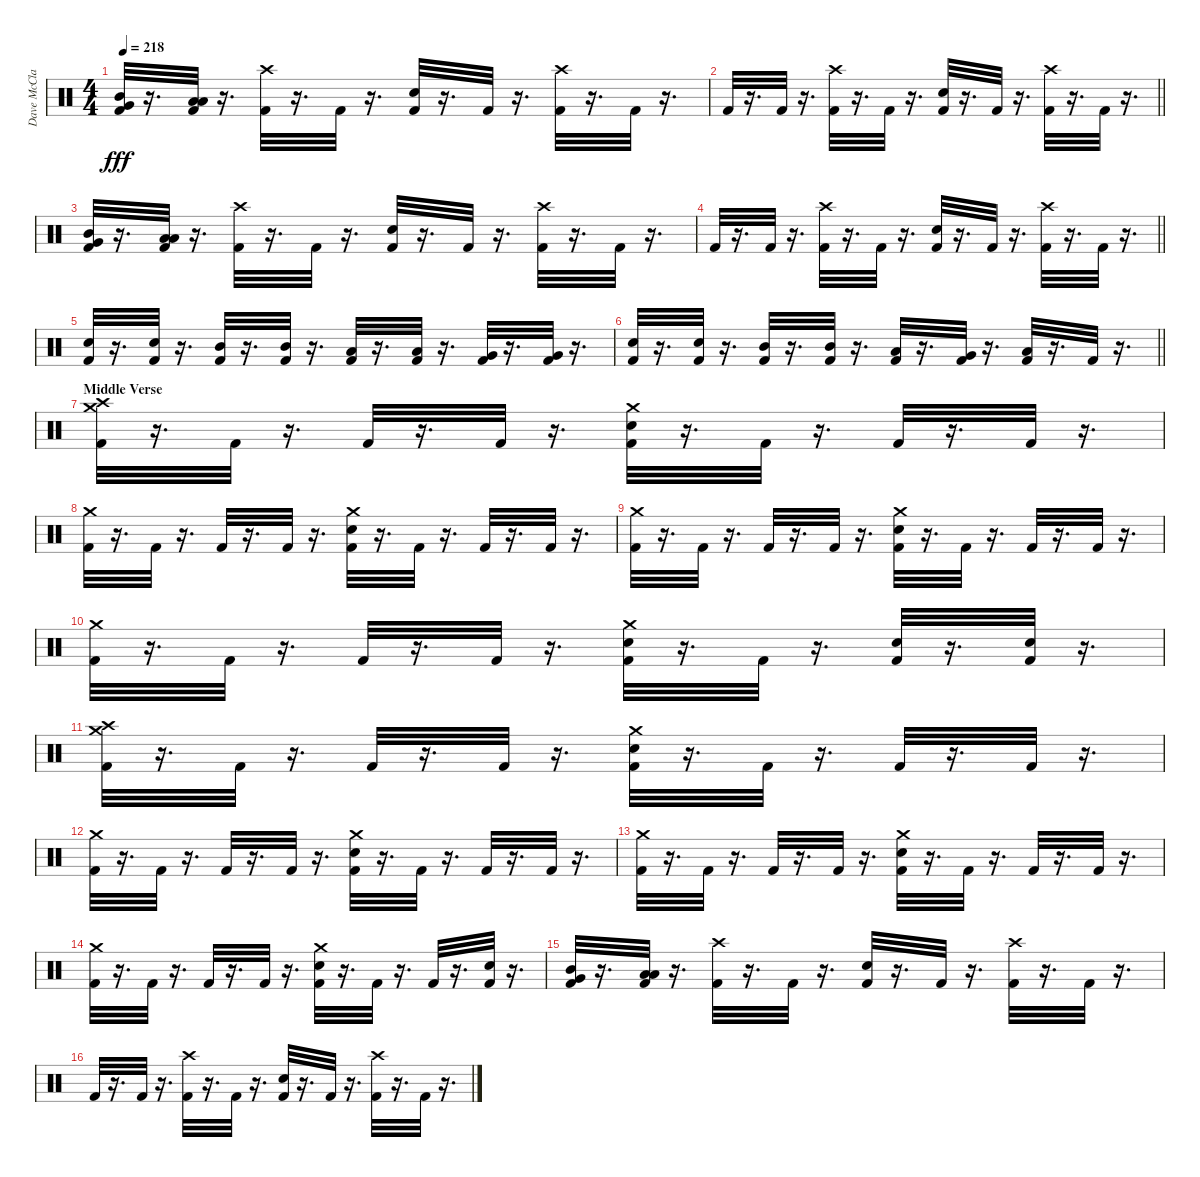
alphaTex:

\track ("Dave McClain" "Dave McCla") {instrument percussion}
\staff {score}
\articulation defaults
\ts (4 4)
\tempo 218
\clef neutral
\ks c
("Very Low Tom (hit)" "Mid Tom (hit)" "Kick (hit) 2").32{dy fff} r.16{d} ("Low Tom (hit)" "Low Floor Tom (hit)" "Kick (hit) 2").32 r.16{d} ("Kick (hit) 2" "Crash high (hit)").32 r.16{d} "Kick (hit) 2".32 r.16{d} ("Kick (hit) 2" "Snare (hit) 2").32 r.16{d} "Kick (hit) 2".32 r.16{d} ("Kick (hit) 2" "Crash high (hit)").32 r.16{d} "Kick (hit) 2".32 r.16{d} |
\barLineRight lightlight "Kick (hit) 2".32
r.16{d} "Kick (hit) 2".32 r.16{d} ("Kick (hit) 2" "Crash high (hit)").32 r.16{d} "Kick (hit) 2".32 r.16{d} ("Kick (hit) 2" "Snare (hit) 2").32 r.16{d} "Kick (hit) 2".32 r.16{d} ("Kick (hit) 2" "Crash high (hit)").32 r.16{d} "Kick (hit) 2".32 r.16{d} |
("Very Low Tom (hit)" "Mid Tom (hit)" "Kick (hit) 2").32 r.16{d} ("Kick (hit) 2" "Low Tom (hit)" "Low Floor Tom (hit)").32 r.16{d} ("Kick (hit) 2" "Crash high (hit)").32 r.16{d} "Kick (hit) 2".32 r.16{d} ("Kick (hit) 2" "Snare (hit) 2").32 r.16{d} "Kick (hit) 2".32 r.16{d} ("Kick (hit) 2" "Crash high (hit)").32 r.16{d} "Kick (hit) 2".32 r.16{d} |
\barLineRight lightlight "Kick (hit) 2".32
r.16{d} "Kick (hit) 2".32 r.16{d} ("Kick (hit) 2" "Crash high (hit)").32 r.16{d} "Kick (hit) 2".32 r.16{d} ("Kick (hit) 2" "Snare (hit) 2").32 r.16{d} "Kick (hit) 2".32 r.16{d} ("Kick (hit) 2" "Crash high (hit)").32 r.16{d} "Kick (hit) 2".32 r.16{d} |
("Snare (hit) 2" "Kick (hit) 2").32 r.16{d} ("Snare (hit) 2" "Kick (hit) 2").32 r.16{d} ("Mid Tom (hit)" "Kick (hit) 2").32 r.16{d} ("Mid Tom (hit)" "Kick (hit) 2").32 r.16{d} ("Low Tom (hit)" "Kick (hit) 2").32 r.16{d} ("Low Tom (hit)" "Kick (hit) 2").32 r.16{d} ("Very Low Tom (hit)" "Kick (hit) 2").32 r.16{d} ("Very Low Tom (hit)" "Kick (hit) 2").32 r.16{d} |
\barLineRight lightlight
("Snare (hit) 2" "Kick (hit) 2").32 r.16{d} ("Snare (hit) 2" "Kick (hit) 2").32 r.16{d} ("Mid Tom (hit)" "Kick (hit) 2").32 r.16{d} ("Mid Tom (hit)" "Kick (hit) 2").32 r.16{d} ("Low Tom (hit)" "Kick (hit) 2").32 r.16{d} ("Very Low Tom (hit)" "Kick (hit) 2").32 r.16{d} ("Low Floor Tom (hit)" "Kick (hit) 2").32 r.16{d} "Kick (hit) 2".32 r.16{d} |
\section ("" "Middle Verse")
("Crash medium (hit)" "Crash high (hit)" "Kick (hit) 2").32 r.16{d} "Kick (hit) 2".32 r.16{d} "Kick (hit) 2".32 r.16{d} "Kick (hit) 2".32 r.16{d} ("Crash medium (hit)" "Snare (hit) 2" "Kick (hit) 2").32 r.16{d} "Kick (hit) 2".32 r.16{d} "Kick (hit) 2".32 r.16{d} "Kick (hit) 2".32 r.16{d} |
("Crash medium (hit)" "Kick (hit) 2").32 r.16{d} "Kick (hit) 2".32 r.16{d} "Kick (hit) 2".32 r.16{d} "Kick (hit) 2".32 r.16{d} ("Crash medium (hit)" "Snare (hit) 2" "Kick (hit) 2").32 r.16{d} "Kick (hit) 2".32 r.16{d} "Kick (hit) 2".32 r.16{d} "Kick (hit) 2".32 r.16{d} |
("Crash medium (hit)" "Kick (hit) 2").32 r.16{d} "Kick (hit) 2".32 r.16{d} "Kick (hit) 2".32 r.16{d} "Kick (hit) 2".32 r.16{d} ("Crash medium (hit)" "Snare (hit) 2" "Kick (hit) 2").32 r.16{d} "Kick (hit) 2".32 r.16{d} "Kick (hit) 2".32 r.16{d} "Kick (hit) 2".32 r.16{d} |
("Crash medium (hit)" "Kick (hit) 2").32 r.16{d} "Kick (hit) 2".32 r.16{d} "Kick (hit) 2".32 r.16{d} "Kick (hit) 2".32 r.16{d} ("Crash medium (hit)" "Snare (hit) 2" "Kick (hit) 2").32 r.16{d} "Kick (hit) 2".32 r.16{d} ("Snare (hit) 2" "Kick (hit) 2").32 r.16{d} ("Snare (hit) 2" "Kick (hit) 2").32 r.16{d} |
("Crash medium (hit)" "Crash high (hit)" "Kick (hit) 2").32 r.16{d} "Kick (hit) 2".32 r.16{d} "Kick (hit) 2".32 r.16{d} "Kick (hit) 2".32 r.16{d} ("Crash medium (hit)" "Snare (hit) 2" "Kick (hit) 2").32 r.16{d} "Kick (hit) 2".32 r.16{d} "Kick (hit) 2".32 r.16{d} "Kick (hit) 2".32 r.16{d} |
("Crash medium (hit)" "Kick (hit) 2").32 r.16{d} "Kick (hit) 2".32 r.16{d} "Kick (hit) 2".32 r.16{d} "Kick (hit) 2".32 r.16{d} ("Crash medium (hit)" "Snare (hit) 2" "Kick (hit) 2").32 r.16{d} "Kick (hit) 2".32 r.16{d} "Kick (hit) 2".32 r.16{d} "Kick (hit) 2".32 r.16{d} |
("Crash medium (hit)" "Kick (hit) 2").32 r.16{d} "Kick (hit) 2".32 r.16{d} "Kick (hit) 2".32 r.16{d} "Kick (hit) 2".32 r.16{d} ("Crash medium (hit)" "Snare (hit) 2" "Kick (hit) 2").32 r.16{d} "Kick (hit) 2".32 r.16{d} "Kick (hit) 2".32 r.16{d} "Kick (hit) 2".32 r.16{d} |
("Crash medium (hit)" "Kick (hit) 2").32 r.16{d} "Kick (hit) 2".32 r.16{d} "Kick (hit) 2".32 r.16{d} "Kick (hit) 2".32 r.16{d} ("Crash medium (hit)" "Snare (hit) 2" "Kick (hit) 2").32 r.16{d} "Kick (hit) 2".32 r.16{d} "Kick (hit) 2".32 r.16{d} ("Snare (hit) 2" "Kick (hit) 2").32 r.16{d} |
("Very Low Tom (hit)" "Mid Tom (hit)" "Kick (hit) 2").32 r.16{d} ("Kick (hit) 2" "Low Tom (hit)" "Low Floor Tom (hit)").32 r.16{d} ("Kick (hit) 2" "Crash high (hit)").32 r.16{d} "Kick (hit) 2".32 r.16{d} ("Kick (hit) 2" "Snare (hit) 2").32 r.16{d} "Kick (hit) 2".32 r.16{d} ("Kick (hit) 2" "Crash high (hit)").32 r.16{d} "Kick (hit) 2".32 r.16{d} |
"Kick (hit) 2".32 r.16{d} "Kick (hit) 2".32 r.16{d} ("Kick (hit) 2" "Crash high (hit)").32 r.16{d} "Kick (hit) 2".32 r.16{d} ("Kick (hit) 2" "Snare (hit) 2").32 r.16{d} "Kick (hit) 2".32 r.16{d} ("Kick (hit) 2" "Crash high (hit)").32 r.16{d} "Kick (hit) 2".32 r.16{d}
